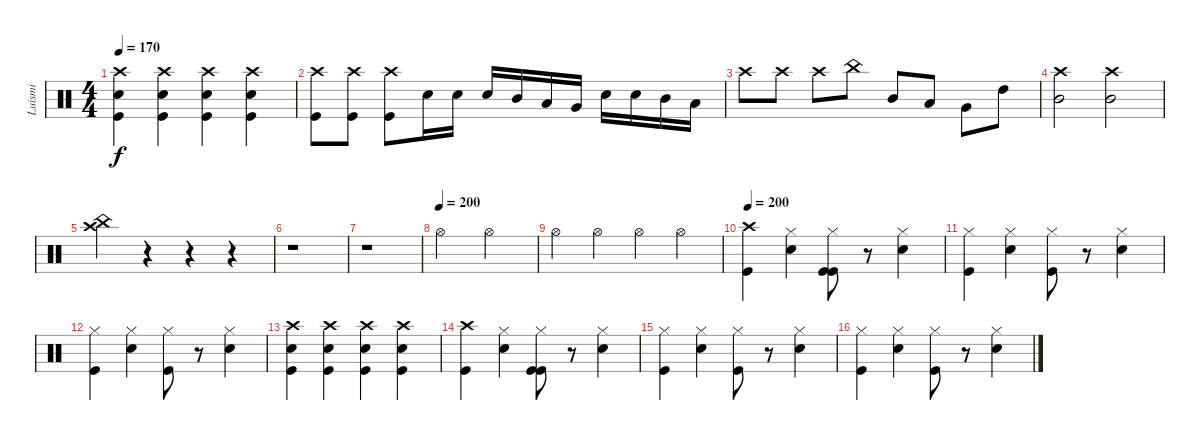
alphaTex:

\track ("Luismi" "Luismi") {instrument percussion}
\staff {score}
\articulation defaults
\ts (4 4)
\tempo 170
\clef neutral
\ks c
("Kick (hit)" "Snare (hit) 2" "Crash high (hit)").4{dy f} ("Snare (hit) 2" "Kick (hit)" "Crash high (hit)").4 ("Snare (hit) 2" "Kick (hit)" "Crash high (hit)").4 ("Snare (hit) 2" "Kick (hit)" "Crash high (hit)").4 |
("Kick (hit)" "Crash high (hit)").8 ("Kick (hit)" "Crash high (hit)").8 ("Kick (hit)" "Crash high (hit)").8 "Snare (hit) 2".16 "Snare (hit) 2".16 "Snare (hit) 2".16 "Mid Tom (hit)".16 "Low Tom (hit)".16 "Very Low Tom (hit)".16 "Snare (hit) 2".16 "Snare (hit) 2".16 "Mid Tom (hit)".16 "Low Tom (hit)".16 |
"Crash high (hit)".8 "Crash high (hit)".8 "Crash high (hit)".8 "China (hit)".8 "Mid Tom (hit)".8 "Low Tom (hit)".8 "Very Low Tom (hit)".8 "High Tom (hit)".8 |
("Mid Tom (hit)" "Crash high (hit)").2 ("Crash high (hit)" "Mid Tom (hit)").2 |
("Crash high (hit)" "China (hit)").4 r.4 r.4 r.4 |
r.1 |
r.1 |
\tempo (200)
"Hi-Hat (open)".2 "Hi-Hat (open)".2 |
"Hi-Hat (open)".4 "Hi-Hat (open)".4 "Hi-Hat (open)".4 "Hi-Hat (open)".4 |
\tempo 200
("Crash high (hit)" "Kick (hit)").4 ("Snare (hit) 2" "Hi-Hat (closed)").4 ("Kick (hit)" "Kick (hit)" "Hi-Hat (closed)").8 r.8 ("Snare (hit) 2" "Hi-Hat (closed)").4 |
("Kick (hit)" "Hi-Hat (closed)").4 ("Snare (hit) 2" "Hi-Hat (closed)").4 ("Kick (hit)" "Hi-Hat (closed)").8 r.8 ("Snare (hit) 2" "Hi-Hat (closed)").4 |
("Kick (hit)" "Hi-Hat (closed)").4 ("Snare (hit) 2" "Hi-Hat (closed)").4 ("Kick (hit)" "Hi-Hat (closed)").8 r.8 ("Snare (hit) 2" "Hi-Hat (closed)").4 |
("Kick (hit)" "Snare (hit) 2" "Crash high (hit)").4 ("Snare (hit) 2" "Kick (hit)" "Crash high (hit)").4 ("Snare (hit) 2" "Kick (hit)" "Crash high (hit)").4 ("Snare (hit) 2" "Kick (hit)" "Crash high (hit)").4 |
("Crash high (hit)" "Kick (hit)").4 ("Snare (hit) 2" "Hi-Hat (closed)").4 ("Kick (hit)" "Kick (hit)" "Hi-Hat (closed)").8 r.8 ("Snare (hit) 2" "Hi-Hat (closed)").4 |
("Kick (hit)" "Hi-Hat (closed)").4 ("Snare (hit) 2" "Hi-Hat (closed)").4 ("Kick (hit)" "Hi-Hat (closed)").8 r.8 ("Snare (hit) 2" "Hi-Hat (closed)").4 |
("Kick (hit)" "Hi-Hat (closed)").4 ("Snare (hit) 2" "Hi-Hat (closed)").4 ("Kick (hit)" "Hi-Hat (closed)").8 r.8 ("Snare (hit) 2" "Hi-Hat (closed)").4
